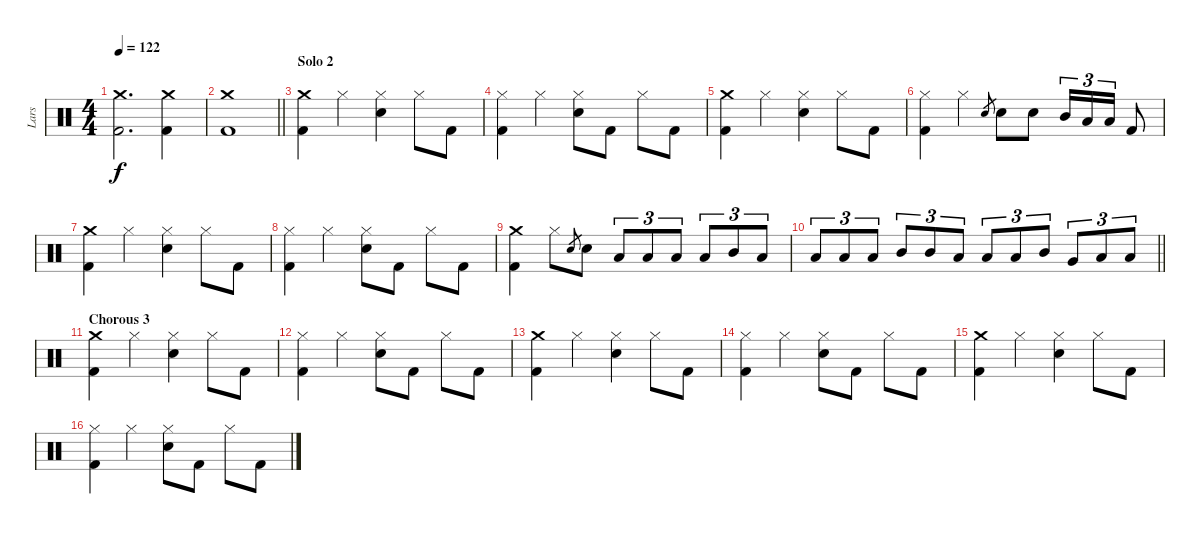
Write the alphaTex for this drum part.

\track ("Lars" "Lars") {instrument percussion}
\staff {score}
\articulation defaults
\ts (4 4)
\tempo 122
\clef neutral
\ks c
("Crash medium (hit)" "Kick (hit) 2").2{d dy f} ("Crash medium (hit)" "Kick (hit) 2").4 |
\barLineRight lightlight
("Crash medium (hit)" "Kick (hit) 2").1 |
\section ("" "Solo 2")
("Crash medium (hit)" "Kick (hit) 2").4 "Hi-Hat (closed)".4 ("Hi-Hat (closed)" "Snare (hit) 2").4 "Hi-Hat (closed)".8 "Kick (hit) 2".8 |
("Hi-Hat (closed)" "Kick (hit) 2").4 "Hi-Hat (closed)".4 ("Hi-Hat (closed)" "Snare (hit) 2").8 "Kick (hit) 2".8 "Hi-Hat (closed)".8 "Kick (hit) 2".8 |
("Crash medium (hit)" "Kick (hit) 2").4 "Hi-Hat (closed)".4 ("Hi-Hat (closed)" "Snare (hit) 2").4 "Hi-Hat (closed)".8 "Kick (hit) 2".8 |
("Hi-Hat (closed)" "Kick (hit) 2").4 "Hi-Hat (closed)".4 "Snare (hit) 2".8{gr} "Snare (hit) 2".8 "Snare (hit) 2".8 "Mid Tom (hit)".16{tu (3 2)} "Low Tom (hit)".16{tu (3 2)} "Low Tom (hit)".16{tu (3 2)} "Kick (hit) 2".8 |
("Crash medium (hit)" "Kick (hit) 2").4 "Hi-Hat (closed)".4 ("Hi-Hat (closed)" "Snare (hit) 2").4 "Hi-Hat (closed)".8 "Kick (hit) 2".8 |
("Hi-Hat (closed)" "Kick (hit) 2").4 "Hi-Hat (closed)".4 ("Hi-Hat (closed)" "Snare (hit) 2").8 "Kick (hit) 2".8 "Hi-Hat (closed)".8 "Kick (hit) 2".8 |
("Crash medium (hit)" "Kick (hit) 2").4 "Hi-Hat (closed)".8 "Snare (hit) 2".8{gr} "Snare (hit) 2".8 "Low Tom (hit)".8{tu (3 2)} "Low Tom (hit)".8{tu (3 2)} "Low Tom (hit)".8{tu (3 2)} "Low Tom (hit)".8{tu (3 2)} "Mid Tom (hit)".8{tu (3 2)} "Low Tom (hit)".8{tu (3 2)} |
\barLineRight lightlight "Low Tom (hit)".8{tu (3 2)} "Low Tom (hit)".8{tu (3 2)} "Low Tom (hit)".8{tu (3 2)} "Mid Tom (hit)".8{tu (3 2)} "Mid Tom (hit)".8{tu (3 2)} "Low Tom (hit)".8{tu (3 2)} "Low Tom (hit)".8{tu (3 2)} "Low Tom (hit)".8{tu (3 2)} "Mid Tom (hit)".8{tu (3 2)} "Very Low Tom (hit)".8{tu (3 2)} "Low Tom (hit)".8{tu (3 2)} "Low Tom (hit)".8{tu (3 2)}
|
\section ("" "Chorous 3")
("Crash medium (hit)" "Kick (hit) 2").4 "Hi-Hat (closed)".4 ("Hi-Hat (closed)" "Snare (hit) 2").4 "Hi-Hat (closed)".8 "Kick (hit) 2".8 |
("Hi-Hat (closed)" "Kick (hit) 2").4 "Hi-Hat (closed)".4 ("Hi-Hat (closed)" "Snare (hit) 2").8 "Kick (hit) 2".8 "Hi-Hat (closed)".8 "Kick (hit) 2".8 |
("Crash medium (hit)" "Kick (hit) 2").4 "Hi-Hat (closed)".4 ("Hi-Hat (closed)" "Snare (hit) 2").4 "Hi-Hat (closed)".8 "Kick (hit) 2".8 |
("Hi-Hat (closed)" "Kick (hit) 2").4 "Hi-Hat (closed)".4 ("Hi-Hat (closed)" "Snare (hit) 2").8 "Kick (hit) 2".8 "Hi-Hat (closed)".8 "Kick (hit) 2".8 |
("Crash medium (hit)" "Kick (hit) 2").4 "Hi-Hat (closed)".4 ("Hi-Hat (closed)" "Snare (hit) 2").4 "Hi-Hat (closed)".8 "Kick (hit) 2".8 |
("Hi-Hat (closed)" "Kick (hit) 2").4 "Hi-Hat (closed)".4 ("Hi-Hat (closed)" "Snare (hit) 2").8 "Kick (hit) 2".8 "Hi-Hat (closed)".8 "Kick (hit) 2".8
